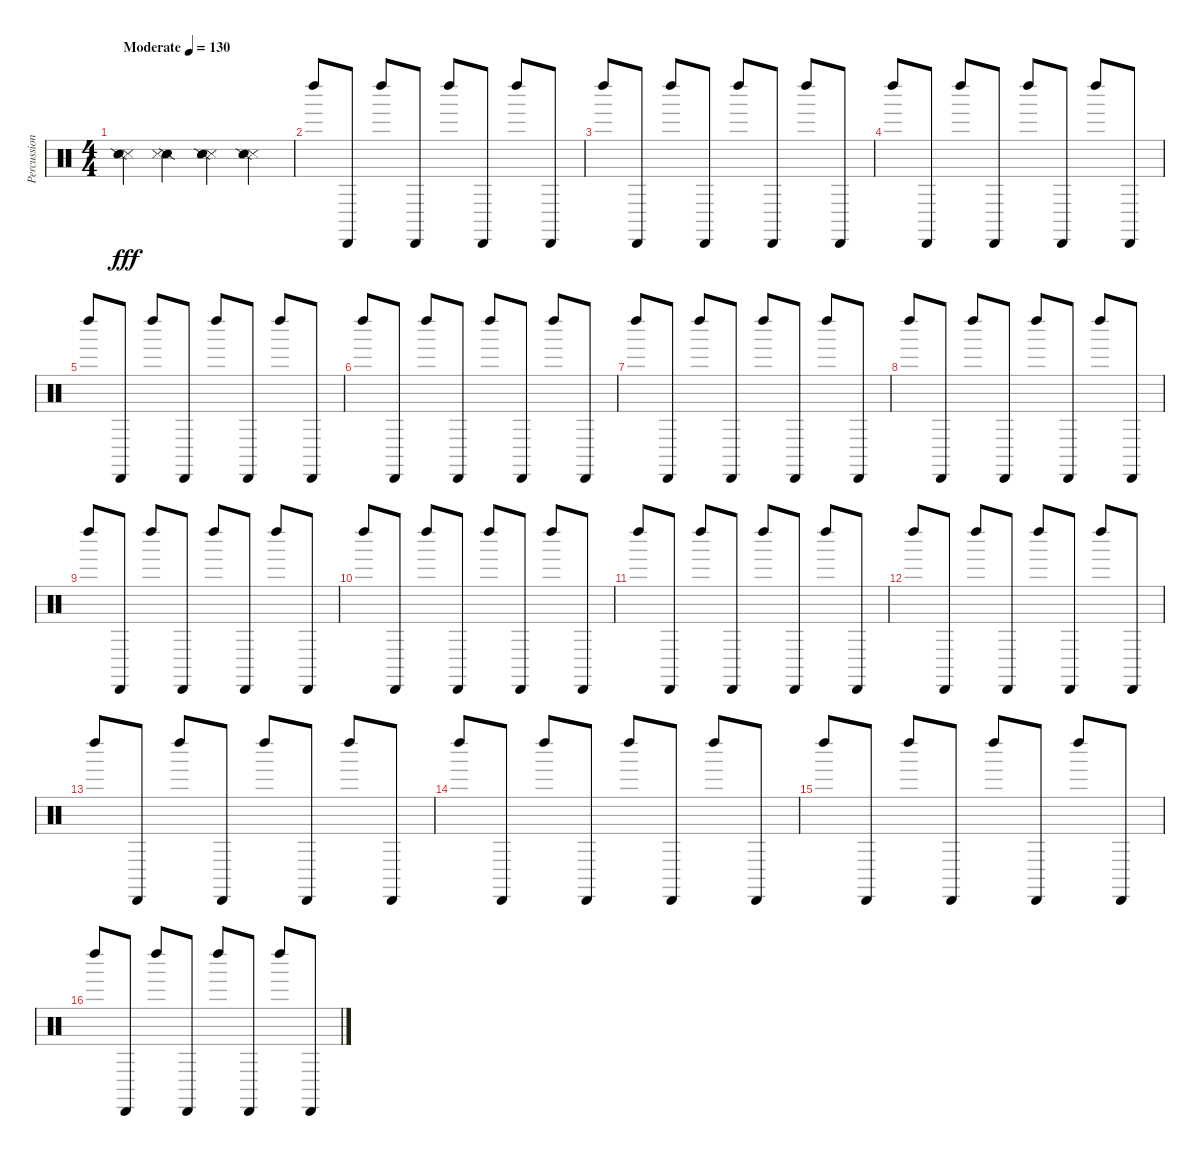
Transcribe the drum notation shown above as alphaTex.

\track ("Percussions" "Percussion") {instrument percussion}
\staff {score}
\articulation defaults
\ts (4 4)
\tempo (130 "Moderate")
\clef neutral
\ks c
("Snare (side stick) 3" "Snare (side stick) 2").4{dy fff} ("Snare (side stick) 2" "Snare (side stick) 3").4 ("Snare (side stick) 3" "Snare (side stick) 2").4 ("Snare (side stick) 3" "Snare (side stick) 2").4 |
"Left Maraca (hit)".8 "Cabasa (hit)".8 "Left Maraca (hit)".8 "Cabasa (hit)".8 "Left Maraca (hit)".8 "Cabasa (hit)".8 "Left Maraca (hit)".8 "Cabasa (hit)".8 |
"Left Maraca (hit)".8 "Cabasa (hit)".8 "Left Maraca (hit)".8 "Cabasa (hit)".8 "Left Maraca (hit)".8 "Cabasa (hit)".8 "Left Maraca (hit)".8 "Cabasa (hit)".8 |
"Left Maraca (hit)".8 "Cabasa (hit)".8 "Left Maraca (hit)".8 "Cabasa (hit)".8 "Left Maraca (hit)".8 "Cabasa (hit)".8 "Left Maraca (hit)".8 "Cabasa (hit)".8 |
"Left Maraca (hit)".8 "Cabasa (hit)".8 "Left Maraca (hit)".8 "Cabasa (hit)".8 "Left Maraca (hit)".8 "Cabasa (hit)".8 "Left Maraca (hit)".8 "Cabasa (hit)".8 |
"Left Maraca (hit)".8 "Cabasa (hit)".8 "Left Maraca (hit)".8 "Cabasa (hit)".8 "Left Maraca (hit)".8 "Cabasa (hit)".8 "Left Maraca (hit)".8 "Cabasa (hit)".8 |
"Left Maraca (hit)".8 "Cabasa (hit)".8 "Left Maraca (hit)".8 "Cabasa (hit)".8 "Left Maraca (hit)".8 "Cabasa (hit)".8 "Left Maraca (hit)".8 "Cabasa (hit)".8 |
"Left Maraca (hit)".8 "Cabasa (hit)".8 "Left Maraca (hit)".8 "Cabasa (hit)".8 "Left Maraca (hit)".8 "Cabasa (hit)".8 "Left Maraca (hit)".8 "Cabasa (hit)".8 |
"Left Maraca (hit)".8 "Cabasa (hit)".8 "Left Maraca (hit)".8 "Cabasa (hit)".8 "Left Maraca (hit)".8 "Cabasa (hit)".8 "Left Maraca (hit)".8 "Cabasa (hit)".8 |
"Left Maraca (hit)".8 "Cabasa (hit)".8 "Left Maraca (hit)".8 "Cabasa (hit)".8 "Left Maraca (hit)".8 "Cabasa (hit)".8 "Left Maraca (hit)".8 "Cabasa (hit)".8 |
"Left Maraca (hit)".8 "Cabasa (hit)".8 "Left Maraca (hit)".8 "Cabasa (hit)".8 "Left Maraca (hit)".8 "Cabasa (hit)".8 "Left Maraca (hit)".8 "Cabasa (hit)".8 |
"Left Maraca (hit)".8 "Cabasa (hit)".8 "Left Maraca (hit)".8 "Cabasa (hit)".8 "Left Maraca (hit)".8 "Cabasa (hit)".8 "Left Maraca (hit)".8 "Cabasa (hit)".8 |
"Left Maraca (hit)".8 "Cabasa (hit)".8 "Left Maraca (hit)".8 "Cabasa (hit)".8 "Left Maraca (hit)".8 "Cabasa (hit)".8 "Left Maraca (hit)".8 "Cabasa (hit)".8 |
"Left Maraca (hit)".8 "Cabasa (hit)".8 "Left Maraca (hit)".8 "Cabasa (hit)".8 "Left Maraca (hit)".8 "Cabasa (hit)".8 "Left Maraca (hit)".8 "Cabasa (hit)".8 |
"Left Maraca (hit)".8 "Cabasa (hit)".8 "Left Maraca (hit)".8 "Cabasa (hit)".8 "Left Maraca (hit)".8 "Cabasa (hit)".8 "Left Maraca (hit)".8 "Cabasa (hit)".8 |
"Left Maraca (hit)".8 "Cabasa (hit)".8 "Left Maraca (hit)".8 "Cabasa (hit)".8 "Left Maraca (hit)".8 "Cabasa (hit)".8 "Left Maraca (hit)".8 "Cabasa (hit)".8
